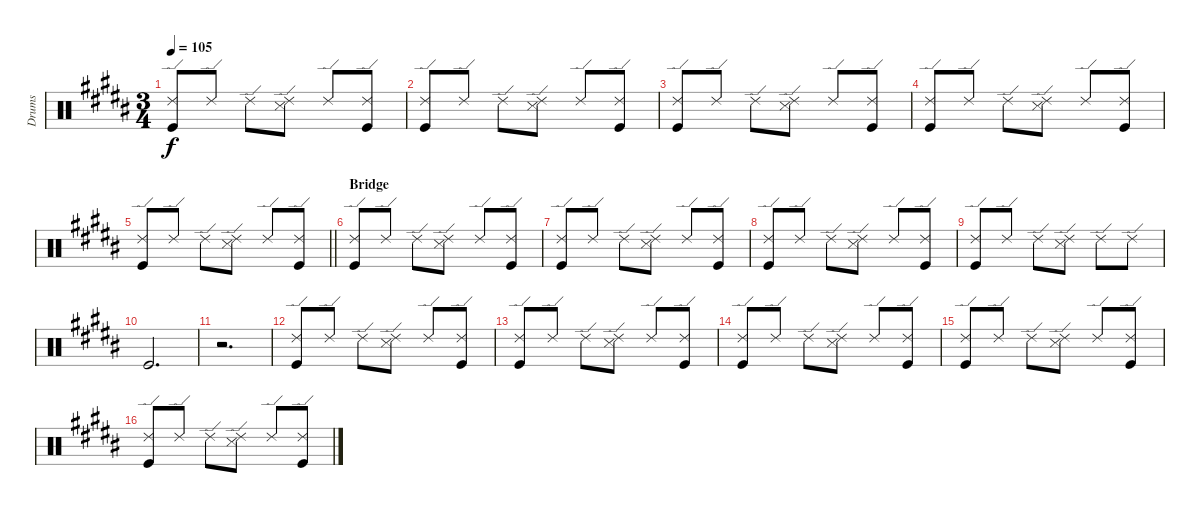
\track ("Drums" "Drums") {instrument percussion}
\staff {score}
\articulation defaults
\ts (3 4)
\tempo 105
\clef neutral
\ks b
("Ride (edge) 2" "Kick (hit)").8{dy f} "Ride (edge) 2".8 "Ride (edge) 2".8 ("Ride (edge) 2" "Snare (side stick) 3").8 "Ride (edge) 2".8 ("Ride (edge) 2" "Kick (hit)").8 |
("Ride (edge) 2" "Kick (hit)").8 "Ride (edge) 2".8 "Ride (edge) 2".8 ("Ride (edge) 2" "Snare (side stick) 3").8 "Ride (edge) 2".8 ("Ride (edge) 2" "Kick (hit)").8 |
("Ride (edge) 2" "Kick (hit)").8 "Ride (edge) 2".8 "Ride (edge) 2".8 ("Ride (edge) 2" "Snare (side stick) 3").8 "Ride (edge) 2".8 ("Ride (edge) 2" "Kick (hit)").8 |
("Ride (edge) 2" "Kick (hit)").8 "Ride (edge) 2".8 "Ride (edge) 2".8 ("Ride (edge) 2" "Snare (side stick) 3").8 "Ride (edge) 2".8 ("Ride (edge) 2" "Kick (hit)").8 |
\barLineRight lightlight
("Ride (edge) 2" "Kick (hit)").8 "Ride (edge) 2".8 "Ride (edge) 2".8 ("Ride (edge) 2" "Snare (side stick) 3").8 "Ride (edge) 2".8 ("Ride (edge) 2" "Kick (hit)").8 |
\section ("" "Bridge")
("Ride (edge) 2" "Kick (hit)").8 "Ride (edge) 2".8 "Ride (edge) 2".8 ("Ride (edge) 2" "Snare (side stick) 3").8 "Ride (edge) 2".8 ("Ride (edge) 2" "Kick (hit)").8 |
("Ride (edge) 2" "Kick (hit)").8 "Ride (edge) 2".8 "Ride (edge) 2".8 ("Ride (edge) 2" "Snare (side stick) 3").8 "Ride (edge) 2".8 ("Ride (edge) 2" "Kick (hit)").8 |
("Ride (edge) 2" "Kick (hit)").8 "Ride (edge) 2".8 "Ride (edge) 2".8 ("Ride (edge) 2" "Snare (side stick) 3").8 "Ride (edge) 2".8 ("Ride (edge) 2" "Kick (hit)").8 |
("Ride (edge) 2" "Kick (hit)").8 "Ride (edge) 2".8 "Ride (edge) 2".8 ("Ride (edge) 2" "Snare (side stick) 3").8 "Ride (edge) 2".8 "Ride (edge) 2".8 |
"Kick (hit)".2{d} |
r.2{d} |
("Ride (edge) 2" "Kick (hit)").8 "Ride (edge) 2".8 "Ride (edge) 2".8 ("Ride (edge) 2" "Snare (side stick) 3").8 "Ride (edge) 2".8 ("Ride (edge) 2" "Kick (hit)").8 |
("Ride (edge) 2" "Kick (hit)").8 "Ride (edge) 2".8 "Ride (edge) 2".8 ("Ride (edge) 2" "Snare (side stick) 3").8 "Ride (edge) 2".8 ("Ride (edge) 2" "Kick (hit)").8 |
("Ride (edge) 2" "Kick (hit)").8 "Ride (edge) 2".8 "Ride (edge) 2".8 ("Ride (edge) 2" "Snare (side stick) 3").8 "Ride (edge) 2".8 ("Ride (edge) 2" "Kick (hit)").8 |
("Ride (edge) 2" "Kick (hit)").8 "Ride (edge) 2".8 "Ride (edge) 2".8 ("Ride (edge) 2" "Snare (side stick) 3").8 "Ride (edge) 2".8 ("Ride (edge) 2" "Kick (hit)").8 |
("Ride (edge) 2" "Kick (hit)").8 "Ride (edge) 2".8 "Ride (edge) 2".8 ("Ride (edge) 2" "Snare (side stick) 3").8 "Ride (edge) 2".8 ("Ride (edge) 2" "Kick (hit)").8
